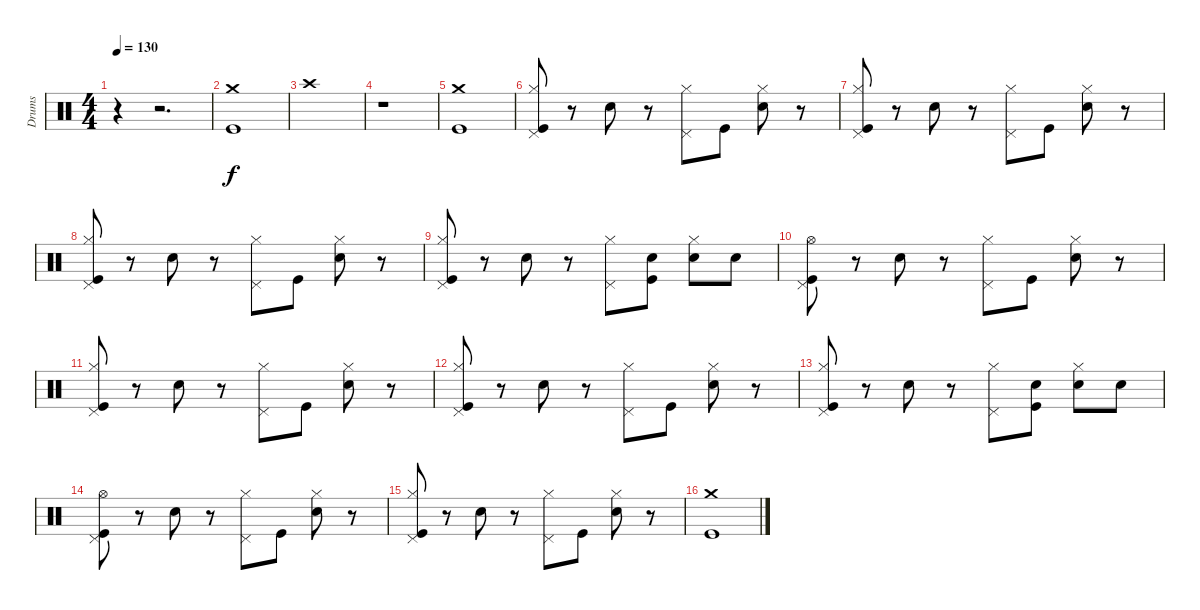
\track ("Drums" "Drums") {instrument percussion}
\staff {score}
\articulation defaults
\ts (4 4)
\tempo 130
\clef neutral
\ks c
r.4{dy f} r.2{d} |
("Crash medium (hit)" "Kick (hit)").1 |
"Crash high (hit)".1 |
r.1 |
("Crash medium (hit)" "Kick (hit)").1 |
("Hi-Hat (closed)" "Pedal Hi-Hat (hit)" "Kick (hit)").8 r.8 "Snare (hit) 2".8 r.8 ("Hi-Hat (closed)" "Pedal Hi-Hat (hit)").8 "Kick (hit)".8 ("Hi-Hat (closed)" "Snare (hit) 2").8 r.8 |
("Hi-Hat (closed)" "Pedal Hi-Hat (hit)" "Kick (hit)").8 r.8 "Snare (hit) 2".8 r.8 ("Hi-Hat (closed)" "Pedal Hi-Hat (hit)").8 "Kick (hit)".8 ("Hi-Hat (closed)" "Snare (hit) 2").8 r.8 |
("Hi-Hat (closed)" "Pedal Hi-Hat (hit)" "Kick (hit)").8 r.8 "Snare (hit) 2".8 r.8 ("Hi-Hat (closed)" "Pedal Hi-Hat (hit)").8 "Kick (hit)".8 ("Hi-Hat (closed)" "Snare (hit) 2").8 r.8 |
("Hi-Hat (closed)" "Pedal Hi-Hat (hit)" "Kick (hit)").8 r.8 "Snare (hit) 2".8 r.8 ("Hi-Hat (closed)" "Pedal Hi-Hat (hit)").8 ("Snare (hit) 2" "Kick (hit)").8 ("Hi-Hat (closed)" "Snare (hit) 2").8 "Snare (hit) 2".8 |
("Hi-Hat (open)" "Pedal Hi-Hat (hit)" "Kick (hit)").8 r.8 "Snare (hit) 2".8 r.8 ("Hi-Hat (closed)" "Pedal Hi-Hat (hit)").8 "Kick (hit)".8 ("Hi-Hat (closed)" "Snare (hit) 2").8 r.8 |
("Hi-Hat (closed)" "Pedal Hi-Hat (hit)" "Kick (hit)").8 r.8 "Snare (hit) 2".8 r.8 ("Hi-Hat (closed)" "Pedal Hi-Hat (hit)").8 "Kick (hit)".8 ("Hi-Hat (closed)" "Snare (hit) 2").8 r.8 |
("Hi-Hat (closed)" "Pedal Hi-Hat (hit)" "Kick (hit)").8 r.8 "Snare (hit) 2".8 r.8 ("Hi-Hat (closed)" "Pedal Hi-Hat (hit)").8 "Kick (hit)".8 ("Hi-Hat (closed)" "Snare (hit) 2").8 r.8 |
("Hi-Hat (closed)" "Pedal Hi-Hat (hit)" "Kick (hit)").8 r.8 "Snare (hit) 2".8 r.8 ("Hi-Hat (closed)" "Pedal Hi-Hat (hit)").8 ("Snare (hit) 2" "Kick (hit)").8 ("Hi-Hat (closed)" "Snare (hit) 2").8 "Snare (hit) 2".8 |
("Hi-Hat (open)" "Pedal Hi-Hat (hit)" "Kick (hit)").8 r.8 "Snare (hit) 2".8 r.8 ("Hi-Hat (closed)" "Pedal Hi-Hat (hit)").8 "Kick (hit)".8 ("Hi-Hat (closed)" "Snare (hit) 2").8 r.8 |
("Hi-Hat (closed)" "Pedal Hi-Hat (hit)" "Kick (hit)").8 r.8 "Snare (hit) 2".8 r.8 ("Hi-Hat (closed)" "Pedal Hi-Hat (hit)").8 "Kick (hit)".8 ("Hi-Hat (closed)" "Snare (hit) 2").8 r.8 |
("Crash medium (hit)" "Kick (hit)").1
